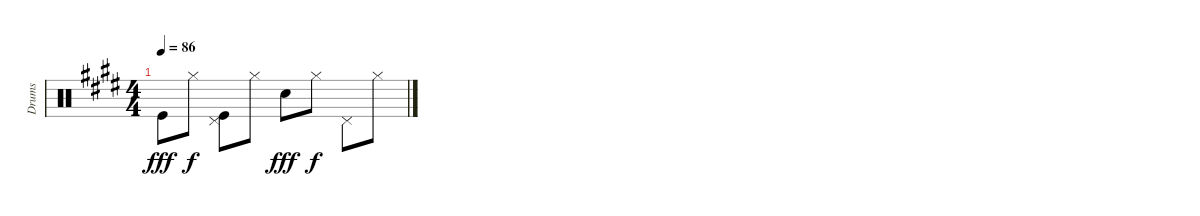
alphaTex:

\track ("Drums" "Drums") {instrument percussion}
\staff {score}
\articulation defaults
\ts (4 4)
\tempo 86
\clef neutral
\ks e "Kick (hit)".8{dy fff} "Hi-Hat (closed)".8{dy f}
("Kick (hit)" "Pedal Hi-Hat (hit)").8 "Hi-Hat (closed)".8 "Snare (hit) 2".8{dy fff} "Hi-Hat (closed)".8{dy f} "Pedal Hi-Hat (hit)".8 "Hi-Hat (closed)".8
